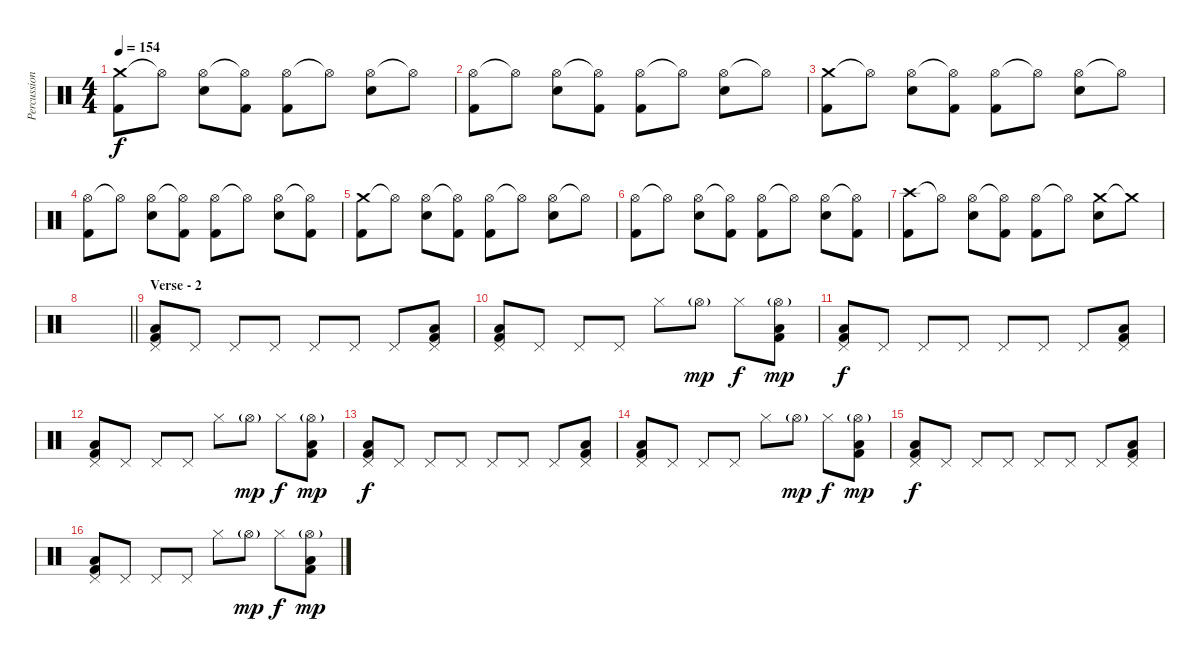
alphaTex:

\track ("Percussion" "Percussion") {instrument percussion}
\staff {score}
\articulation defaults
\ts (4 4)
\tempo 154
\clef neutral
\ks c
("Crash medium (hit)" "Kick (hit) 2").8{dy f} "Hi-Hat (open)"{t}.8 ("Hi-Hat (open)" "Electric Snare (hit)").8 ("Hi-Hat (open)"{t} "Kick (hit) 2").8 ("Hi-Hat (open)" "Kick (hit) 2").8 "Hi-Hat (open)"{t}.8 ("Hi-Hat (open)" "Electric Snare (hit)").8 "Hi-Hat (open)"{t}.8 |
("Hi-Hat (open)" "Kick (hit) 2").8 "Hi-Hat (open)"{t}.8 ("Hi-Hat (open)" "Electric Snare (hit)").8 ("Hi-Hat (open)"{t} "Kick (hit) 2").8 ("Hi-Hat (open)" "Kick (hit) 2").8 "Hi-Hat (open)"{t}.8 ("Hi-Hat (open)" "Electric Snare (hit)").8 "Hi-Hat (open)"{t}.8 |
("Crash medium (hit)" "Kick (hit) 2").8 "Hi-Hat (open)"{t}.8 ("Hi-Hat (open)" "Electric Snare (hit)").8 ("Hi-Hat (open)"{t} "Kick (hit) 2").8 ("Hi-Hat (open)" "Kick (hit) 2").8 "Hi-Hat (open)"{t}.8 ("Hi-Hat (open)" "Electric Snare (hit)").8 "Hi-Hat (open)"{t}.8 |
("Hi-Hat (open)" "Kick (hit) 2").8 "Hi-Hat (open)"{t}.8 ("Hi-Hat (open)" "Electric Snare (hit)").8 ("Hi-Hat (open)"{t} "Kick (hit) 2").8 ("Hi-Hat (open)" "Kick (hit) 2").8 "Hi-Hat (open)"{t}.8 ("Hi-Hat (open)" "Electric Snare (hit)").8 ("Hi-Hat (open)"{t} "Kick (hit) 2").8 |
("Crash medium (hit)" "Kick (hit) 2").8 "Hi-Hat (open)"{t}.8 ("Hi-Hat (open)" "Electric Snare (hit)").8 ("Hi-Hat (open)"{t} "Kick (hit) 2").8 ("Hi-Hat (open)" "Kick (hit) 2").8 "Hi-Hat (open)"{t}.8 ("Hi-Hat (open)" "Electric Snare (hit)").8 "Hi-Hat (open)"{t}.8 |
("Hi-Hat (open)" "Kick (hit) 2").8 "Hi-Hat (open)"{t}.8 ("Hi-Hat (open)" "Electric Snare (hit)").8 ("Hi-Hat (open)"{t} "Kick (hit) 2").8 ("Hi-Hat (open)" "Kick (hit) 2").8 "Hi-Hat (open)"{t}.8 ("Hi-Hat (open)" "Electric Snare (hit)").8 ("Hi-Hat (open)"{t} "Kick (hit) 2").8 |
("Crash high (hit)" "Kick (hit) 2").8 "Hi-Hat (open)"{t}.8 ("Hi-Hat (open)" "Electric Snare (hit)").8 ("Hi-Hat (open)"{t} "Kick (hit) 2").8 ("Hi-Hat (open)" "Kick (hit) 2").8 "Hi-Hat (open)"{t}.8 ("Crash medium (hit)" "Electric Snare (hit)").8 "Crash medium (hit)"{t}.8 |
\barLineRight lightlight
|
\section ("" "Verse - 2")
("Pedal Hi-Hat (hit)" "Low Floor Tom (hit)" "Kick (hit) 2").8 "Pedal Hi-Hat (hit)".8 "Pedal Hi-Hat (hit)".8 "Pedal Hi-Hat (hit)".8 "Pedal Hi-Hat (hit)".8 "Pedal Hi-Hat (hit)".8 "Pedal Hi-Hat (hit)".8 ("Pedal Hi-Hat (hit)" "Low Floor Tom (hit)" "Kick (hit) 2").8 |
("Pedal Hi-Hat (hit)" "Low Floor Tom (hit)" "Kick (hit) 2").8 "Pedal Hi-Hat (hit)".8 "Pedal Hi-Hat (hit)".8 "Pedal Hi-Hat (hit)".8 "Hi-Hat (closed)".8 "Hi-Hat (open)"{g}.8{dy mp} "Hi-Hat (closed)".8{dy f} ("Hi-Hat (open)"{g} "Low Floor Tom (hit)" "Kick (hit) 2").8{dy mp} |
("Pedal Hi-Hat (hit)" "Low Floor Tom (hit)" "Kick (hit) 2").8{dy f} "Pedal Hi-Hat (hit)".8 "Pedal Hi-Hat (hit)".8 "Pedal Hi-Hat (hit)".8 "Pedal Hi-Hat (hit)".8 "Pedal Hi-Hat (hit)".8 "Pedal Hi-Hat (hit)".8 ("Pedal Hi-Hat (hit)" "Low Floor Tom (hit)" "Kick (hit) 2").8 |
("Pedal Hi-Hat (hit)" "Low Floor Tom (hit)" "Kick (hit) 2").8 "Pedal Hi-Hat (hit)".8 "Pedal Hi-Hat (hit)".8 "Pedal Hi-Hat (hit)".8 "Hi-Hat (closed)".8 "Hi-Hat (open)"{g}.8{dy mp} "Hi-Hat (closed)".8{dy f} ("Hi-Hat (open)"{g} "Low Floor Tom (hit)" "Kick (hit) 2").8{dy mp} |
("Pedal Hi-Hat (hit)" "Low Floor Tom (hit)" "Kick (hit) 2").8{dy f} "Pedal Hi-Hat (hit)".8 "Pedal Hi-Hat (hit)".8 "Pedal Hi-Hat (hit)".8 "Pedal Hi-Hat (hit)".8 "Pedal Hi-Hat (hit)".8 "Pedal Hi-Hat (hit)".8 ("Pedal Hi-Hat (hit)" "Low Floor Tom (hit)" "Kick (hit) 2").8 |
("Pedal Hi-Hat (hit)" "Low Floor Tom (hit)" "Kick (hit) 2").8 "Pedal Hi-Hat (hit)".8 "Pedal Hi-Hat (hit)".8 "Pedal Hi-Hat (hit)".8 "Hi-Hat (closed)".8 "Hi-Hat (open)"{g}.8{dy mp} "Hi-Hat (closed)".8{dy f} ("Hi-Hat (open)"{g} "Low Floor Tom (hit)" "Kick (hit) 2").8{dy mp} |
("Pedal Hi-Hat (hit)" "Low Floor Tom (hit)" "Kick (hit) 2").8{dy f} "Pedal Hi-Hat (hit)".8 "Pedal Hi-Hat (hit)".8 "Pedal Hi-Hat (hit)".8 "Pedal Hi-Hat (hit)".8 "Pedal Hi-Hat (hit)".8 "Pedal Hi-Hat (hit)".8 ("Pedal Hi-Hat (hit)" "Low Floor Tom (hit)" "Kick (hit) 2").8 |
("Pedal Hi-Hat (hit)" "Low Floor Tom (hit)" "Kick (hit) 2").8 "Pedal Hi-Hat (hit)".8 "Pedal Hi-Hat (hit)".8 "Pedal Hi-Hat (hit)".8 "Hi-Hat (closed)".8 "Hi-Hat (open)"{g}.8{dy mp} "Hi-Hat (closed)".8{dy f} ("Hi-Hat (open)"{g} "Low Floor Tom (hit)" "Kick (hit) 2").8{dy mp}
